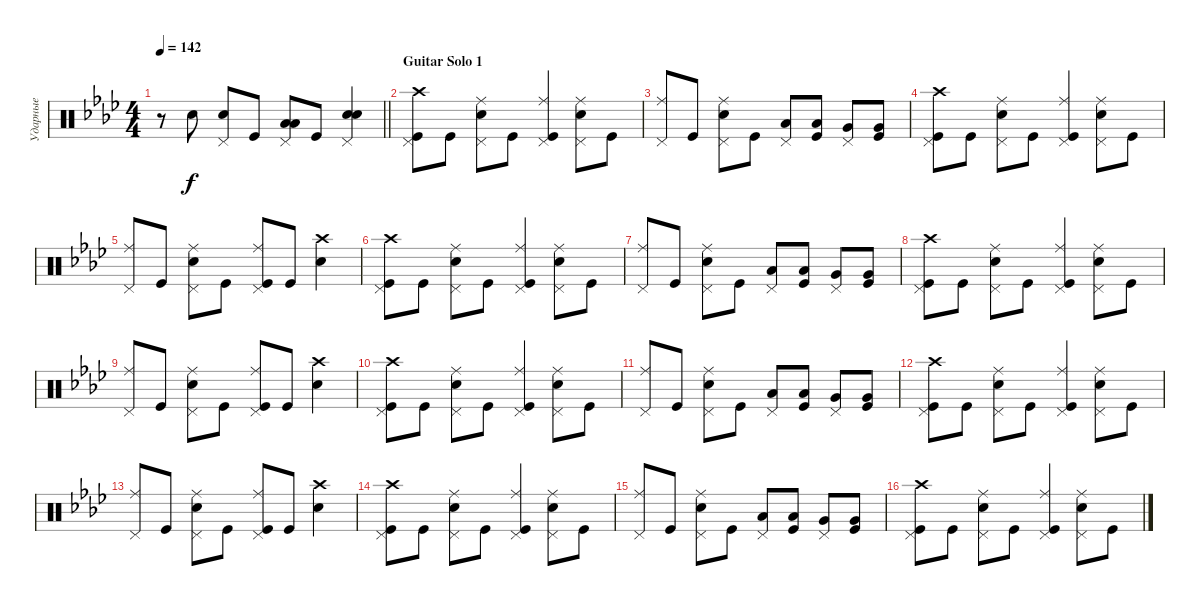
\track ("Ударные" "Ударные") {instrument percussion}
\staff {score}
\articulation defaults
\ts (4 4)
\tempo 142
\clef neutral
\barLineRight lightlight
\ks fminor
r.8{dy f} "Snare (hit) 2".8 ("Snare (hit) 2" "Pedal Hi-Hat (hit)").8 "Kick (hit)".8 ("Low Tom (hit)" "Low Tom (hit)" "Pedal Hi-Hat (hit)").8 "Kick (hit)".8 ("Snare (hit) 2" "Snare (hit) 2" "Pedal Hi-Hat (hit)").4{bd 240} |
\section ("" "Guitar Solo 1")
("Kick (hit)" "Crash high (hit)" "Pedal Hi-Hat (hit)").8 "Kick (hit)".8 ("Snare (hit) 2" "Pedal Hi-Hat (hit)" "Ride (middle)").8 "Kick (hit)".8 ("Kick (hit)" "Pedal Hi-Hat (hit)" "Ride (middle)").4 ("Snare (hit) 2" "Pedal Hi-Hat (hit)" "Ride (middle)").8 "Kick (hit)".8 |
("Ride (middle)" "Pedal Hi-Hat (hit)").8 "Kick (hit)".8 ("Snare (hit) 2" "Pedal Hi-Hat (hit)" "Ride (middle)").8 "Kick (hit)".8 ("Low Tom (hit)" "Pedal Hi-Hat (hit)").8 ("Kick (hit)" "Low Tom (hit)").8 ("Very Low Tom (hit)" "Pedal Hi-Hat (hit)").8 ("Very Low Tom (hit)" "Kick (hit)").8 |
("Kick (hit)" "Crash high (hit)" "Pedal Hi-Hat (hit)").8 "Kick (hit)".8 ("Snare (hit) 2" "Pedal Hi-Hat (hit)" "Ride (middle)").8 "Kick (hit)".8 ("Kick (hit)" "Pedal Hi-Hat (hit)" "Ride (middle)").4 ("Snare (hit) 2" "Pedal Hi-Hat (hit)" "Ride (middle)").8 "Kick (hit)".8 |
("Ride (middle)" "Pedal Hi-Hat (hit)").8 "Kick (hit)".8 ("Snare (hit) 2" "Pedal Hi-Hat (hit)" "Ride (middle)").8 "Kick (hit)".8 ("Kick (hit)" "Ride (middle)" "Pedal Hi-Hat (hit)").8 "Kick (hit)".8 ("Snare (hit) 2" "Crash high (hit)").4 |
("Kick (hit)" "Crash high (hit)" "Pedal Hi-Hat (hit)").8 "Kick (hit)".8 ("Snare (hit) 2" "Pedal Hi-Hat (hit)" "Ride (middle)").8 "Kick (hit)".8 ("Kick (hit)" "Pedal Hi-Hat (hit)" "Ride (middle)").4 ("Snare (hit) 2" "Pedal Hi-Hat (hit)" "Ride (middle)").8 "Kick (hit)".8 |
("Ride (middle)" "Pedal Hi-Hat (hit)").8 "Kick (hit)".8 ("Snare (hit) 2" "Pedal Hi-Hat (hit)" "Ride (middle)").8 "Kick (hit)".8 ("Low Tom (hit)" "Pedal Hi-Hat (hit)").8 ("Kick (hit)" "Low Tom (hit)").8 ("Very Low Tom (hit)" "Pedal Hi-Hat (hit)").8 ("Very Low Tom (hit)" "Kick (hit)").8 |
("Kick (hit)" "Crash high (hit)" "Pedal Hi-Hat (hit)").8 "Kick (hit)".8 ("Snare (hit) 2" "Pedal Hi-Hat (hit)" "Ride (middle)").8 "Kick (hit)".8 ("Kick (hit)" "Pedal Hi-Hat (hit)" "Ride (middle)").4 ("Snare (hit) 2" "Pedal Hi-Hat (hit)" "Ride (middle)").8 "Kick (hit)".8 |
("Ride (middle)" "Pedal Hi-Hat (hit)").8 "Kick (hit)".8 ("Snare (hit) 2" "Pedal Hi-Hat (hit)" "Ride (middle)").8 "Kick (hit)".8 ("Kick (hit)" "Ride (middle)" "Pedal Hi-Hat (hit)").8 "Kick (hit)".8 ("Snare (hit) 2" "Crash high (hit)").4 |
("Kick (hit)" "Crash high (hit)" "Pedal Hi-Hat (hit)").8 "Kick (hit)".8 ("Snare (hit) 2" "Pedal Hi-Hat (hit)" "Ride (middle)").8 "Kick (hit)".8 ("Kick (hit)" "Pedal Hi-Hat (hit)" "Ride (middle)").4 ("Snare (hit) 2" "Pedal Hi-Hat (hit)" "Ride (middle)").8 "Kick (hit)".8 |
("Ride (middle)" "Pedal Hi-Hat (hit)").8 "Kick (hit)".8 ("Snare (hit) 2" "Pedal Hi-Hat (hit)" "Ride (middle)").8 "Kick (hit)".8 ("Low Tom (hit)" "Pedal Hi-Hat (hit)").8 ("Kick (hit)" "Low Tom (hit)").8 ("Very Low Tom (hit)" "Pedal Hi-Hat (hit)").8 ("Very Low Tom (hit)" "Kick (hit)").8 |
("Kick (hit)" "Crash high (hit)" "Pedal Hi-Hat (hit)").8 "Kick (hit)".8 ("Snare (hit) 2" "Pedal Hi-Hat (hit)" "Ride (middle)").8 "Kick (hit)".8 ("Kick (hit)" "Pedal Hi-Hat (hit)" "Ride (middle)").4 ("Snare (hit) 2" "Pedal Hi-Hat (hit)" "Ride (middle)").8 "Kick (hit)".8 |
("Ride (middle)" "Pedal Hi-Hat (hit)").8 "Kick (hit)".8 ("Snare (hit) 2" "Pedal Hi-Hat (hit)" "Ride (middle)").8 "Kick (hit)".8 ("Kick (hit)" "Ride (middle)" "Pedal Hi-Hat (hit)").8 "Kick (hit)".8 ("Snare (hit) 2" "Crash high (hit)").4 |
("Kick (hit)" "Crash high (hit)" "Pedal Hi-Hat (hit)").8 "Kick (hit)".8 ("Snare (hit) 2" "Pedal Hi-Hat (hit)" "Ride (middle)").8 "Kick (hit)".8 ("Kick (hit)" "Pedal Hi-Hat (hit)" "Ride (middle)").4 ("Snare (hit) 2" "Pedal Hi-Hat (hit)" "Ride (middle)").8 "Kick (hit)".8 |
("Ride (middle)" "Pedal Hi-Hat (hit)").8 "Kick (hit)".8 ("Snare (hit) 2" "Pedal Hi-Hat (hit)" "Ride (middle)").8 "Kick (hit)".8 ("Low Tom (hit)" "Pedal Hi-Hat (hit)").8 ("Kick (hit)" "Low Tom (hit)").8 ("Very Low Tom (hit)" "Pedal Hi-Hat (hit)").8 ("Very Low Tom (hit)" "Kick (hit)").8 |
("Kick (hit)" "Crash high (hit)" "Pedal Hi-Hat (hit)").8 "Kick (hit)".8 ("Snare (hit) 2" "Pedal Hi-Hat (hit)" "Ride (middle)").8 "Kick (hit)".8 ("Kick (hit)" "Pedal Hi-Hat (hit)" "Ride (middle)").4 ("Snare (hit) 2" "Pedal Hi-Hat (hit)" "Ride (middle)").8 "Kick (hit)".8
